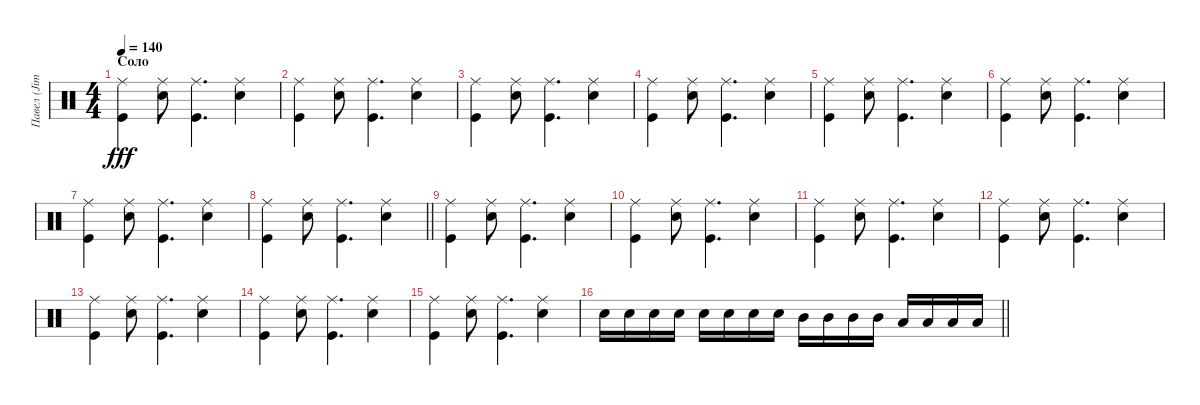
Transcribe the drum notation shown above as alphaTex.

\track ("Павел (Jimmy) Лохнин" "Павел (Jim") {instrument percussion}
\staff {score}
\articulation defaults
\ts (4 4)
\section ("" "Соло")
\tempo 140
\clef neutral
\ks c
("Ride (middle)" "Kick (hit)").4{dy fff} ("Ride (middle)" "Snare (hit) 2").8 ("Ride (middle)" "Kick (hit)").4{d} ("Ride (middle)" "Snare (hit) 2").4 |
("Ride (middle)" "Kick (hit)").4 ("Ride (middle)" "Snare (hit) 2").8 ("Ride (middle)" "Kick (hit)").4{d} ("Ride (middle)" "Snare (hit) 2").4 |
("Ride (middle)" "Kick (hit)").4 ("Ride (middle)" "Snare (hit) 2").8 ("Ride (middle)" "Kick (hit)").4{d} ("Ride (middle)" "Snare (hit) 2").4 |
("Ride (middle)" "Kick (hit)").4 ("Ride (middle)" "Snare (hit) 2").8 ("Ride (middle)" "Kick (hit)").4{d} ("Ride (middle)" "Snare (hit) 2").4 |
("Ride (middle)" "Kick (hit)").4 ("Ride (middle)" "Snare (hit) 2").8 ("Ride (middle)" "Kick (hit)").4{d} ("Ride (middle)" "Snare (hit) 2").4 |
("Ride (middle)" "Kick (hit)").4 ("Ride (middle)" "Snare (hit) 2").8 ("Ride (middle)" "Kick (hit)").4{d} ("Ride (middle)" "Snare (hit) 2").4 |
("Ride (middle)" "Kick (hit)").4 ("Ride (middle)" "Snare (hit) 2").8 ("Ride (middle)" "Kick (hit)").4{d} ("Ride (middle)" "Snare (hit) 2").4 |
\barLineRight lightlight
("Ride (middle)" "Kick (hit)").4 ("Ride (middle)" "Snare (hit) 2").8 ("Ride (middle)" "Kick (hit)").4{d} ("Ride (middle)" "Snare (hit) 2").4 |
("Ride (middle)" "Kick (hit)").4 ("Ride (middle)" "Snare (hit) 2").8 ("Ride (middle)" "Kick (hit)").4{d} ("Ride (middle)" "Snare (hit) 2").4 |
("Ride (middle)" "Kick (hit)").4 ("Ride (middle)" "Snare (hit) 2").8 ("Ride (middle)" "Kick (hit)").4{d} ("Ride (middle)" "Snare (hit) 2").4 |
("Ride (middle)" "Kick (hit)").4 ("Ride (middle)" "Snare (hit) 2").8 ("Ride (middle)" "Kick (hit)").4{d} ("Ride (middle)" "Snare (hit) 2").4 |
("Ride (middle)" "Kick (hit)").4 ("Ride (middle)" "Snare (hit) 2").8 ("Ride (middle)" "Kick (hit)").4{d} ("Ride (middle)" "Snare (hit) 2").4 |
("Ride (middle)" "Kick (hit)").4 ("Ride (middle)" "Snare (hit) 2").8 ("Ride (middle)" "Kick (hit)").4{d} ("Ride (middle)" "Snare (hit) 2").4 |
("Ride (middle)" "Kick (hit)").4 ("Ride (middle)" "Snare (hit) 2").8 ("Ride (middle)" "Kick (hit)").4{d} ("Ride (middle)" "Snare (hit) 2").4 |
("Ride (middle)" "Kick (hit)").4 ("Ride (middle)" "Snare (hit) 2").8 ("Ride (middle)" "Kick (hit)").4{d} ("Ride (middle)" "Snare (hit) 2").4 |
\barLineRight lightlight "Snare (hit) 2".16 "Snare (hit) 2".16 "Snare (hit) 2".16 "Snare (hit) 2".16 "Snare (hit) 2".16 "Snare (hit) 2".16 "Snare (hit) 2".16 "Snare (hit) 2".16 "Mid Tom (hit)".16 "Mid Tom (hit)".16 "Mid Tom (hit)".16 "Mid Tom (hit)".16 "Low Tom (hit)".16 "Low Tom (hit)".16 "Low Tom (hit)".16 "Low Tom (hit)".16
